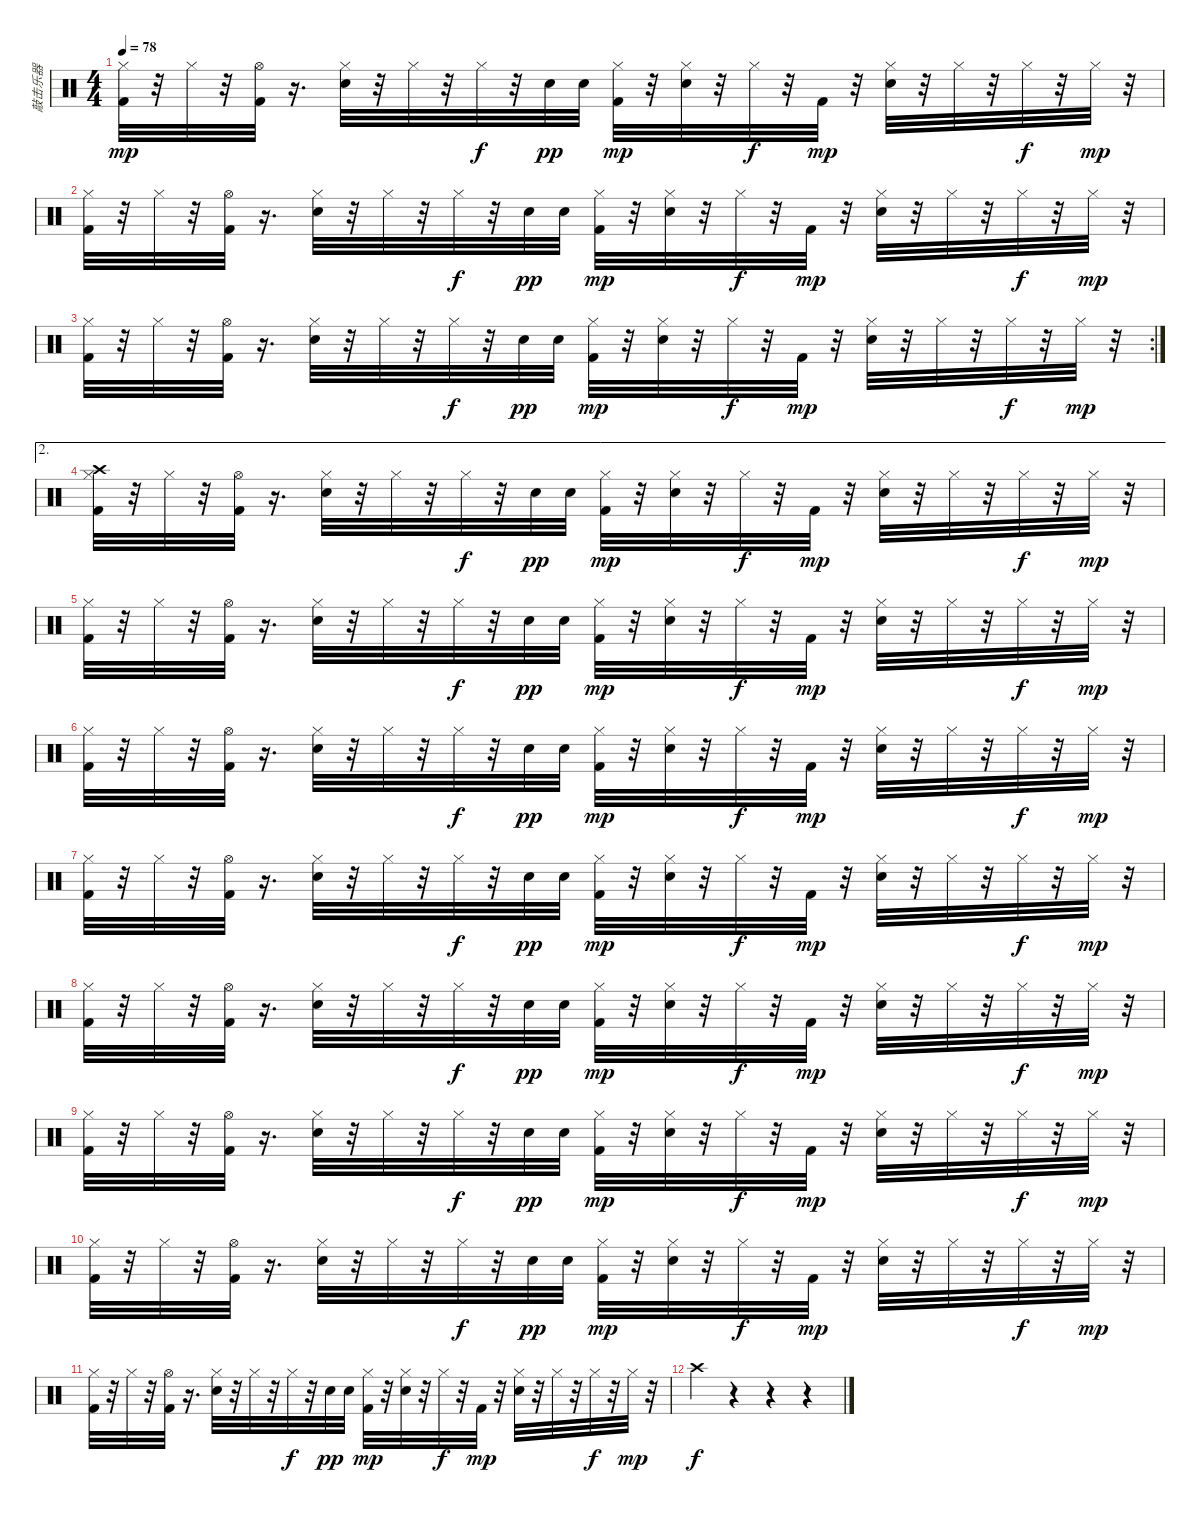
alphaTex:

\track ("敲击乐器" "敲击乐器") {instrument percussion}
\staff {score}
\articulation defaults
\ts (4 4)
\tempo 78
\clef neutral
\ks c
("Hi-Hat (closed)" "Kick (hit) 2").32{dy mp} r.32 "Hi-Hat (closed)".32 r.32 ("Kick (hit) 2" "Hi-Hat (open)").32 r.16{d} ("Hi-Hat (closed)" "Electric Snare (hit)").32 r.32 "Hi-Hat (closed)".32 r.32 "Hi-Hat (closed)".32{dy f} r.32 "Electric Snare (hit)".32{dy pp} "Electric Snare (hit)".32 ("Hi-Hat (closed)" "Kick (hit) 2").32{dy mp} r.32 ("Hi-Hat (closed)" "Electric Snare (hit)").32 r.32 "Hi-Hat (closed)".32{dy f} r.32 "Kick (hit) 2".32{dy mp} r.32 ("Electric Snare (hit)" "Hi-Hat (closed)").32 r.32 "Hi-Hat (closed)".32 r.32 "Hi-Hat (closed)".32{dy f} r.32 "Hi-Hat (closed)".32{dy mp} r.32 |
("Hi-Hat (closed)" "Kick (hit) 2").32 r.32 "Hi-Hat (closed)".32 r.32 ("Hi-Hat (open)" "Kick (hit) 2").32 r.16{d} ("Hi-Hat (closed)" "Electric Snare (hit)").32 r.32 "Hi-Hat (closed)".32 r.32 "Hi-Hat (closed)".32{dy f} r.32 "Electric Snare (hit)".32{dy pp} "Electric Snare (hit)".32 ("Kick (hit) 2" "Hi-Hat (closed)").32{dy mp} r.32 ("Hi-Hat (closed)" "Electric Snare (hit)").32 r.32 "Hi-Hat (closed)".32{dy f} r.32 "Kick (hit) 2".32{dy mp} r.32 ("Hi-Hat (closed)" "Electric Snare (hit)").32 r.32 "Hi-Hat (closed)".32 r.32 "Hi-Hat (closed)".32{dy f} r.32 "Hi-Hat (closed)".32{dy mp} r.32 |
\rc 2
("Hi-Hat (closed)" "Kick (hit) 2").32 r.32 "Hi-Hat (closed)".32 r.32 ("Hi-Hat (open)" "Kick (hit) 2").32 r.16{d} ("Hi-Hat (closed)" "Electric Snare (hit)").32 r.32 "Hi-Hat (closed)".32 r.32 "Hi-Hat (closed)".32{dy f} r.32 "Electric Snare (hit)".32{dy pp} "Electric Snare (hit)".32 ("Kick (hit) 2" "Hi-Hat (closed)").32{dy mp} r.32 ("Hi-Hat (closed)" "Electric Snare (hit)").32 r.32 "Hi-Hat (closed)".32{dy f} r.32 "Kick (hit) 2".32{dy mp} r.32 ("Hi-Hat (closed)" "Electric Snare (hit)").32 r.32 "Hi-Hat (closed)".32 r.32 "Hi-Hat (closed)".32{dy f} r.32 "Hi-Hat (closed)".32{dy mp} r.32 |
\ae 2
("Hi-Hat (closed)" "Kick (hit) 2" "Crash high (hit)").32 r.32 "Hi-Hat (closed)".32 r.32 ("Kick (hit) 2" "Hi-Hat (open)").32 r.16{d} ("Hi-Hat (closed)" "Electric Snare (hit)").32 r.32 "Hi-Hat (closed)".32 r.32 "Hi-Hat (closed)".32{dy f} r.32 "Electric Snare (hit)".32{dy pp} "Electric Snare (hit)".32 ("Hi-Hat (closed)" "Kick (hit) 2").32{dy mp} r.32 ("Hi-Hat (closed)" "Electric Snare (hit)").32 r.32 "Hi-Hat (closed)".32{dy f} r.32 "Kick (hit) 2".32{dy mp} r.32 ("Electric Snare (hit)" "Hi-Hat (closed)").32 r.32 "Hi-Hat (closed)".32 r.32 "Hi-Hat (closed)".32{dy f} r.32 "Hi-Hat (closed)".32{dy mp} r.32 |
("Hi-Hat (closed)" "Kick (hit) 2").32 r.32 "Hi-Hat (closed)".32 r.32 ("Kick (hit) 2" "Hi-Hat (open)").32 r.16{d} ("Hi-Hat (closed)" "Electric Snare (hit)").32 r.32 "Hi-Hat (closed)".32 r.32 "Hi-Hat (closed)".32{dy f} r.32 "Electric Snare (hit)".32{dy pp} "Electric Snare (hit)".32 ("Hi-Hat (closed)" "Kick (hit) 2").32{dy mp} r.32 ("Hi-Hat (closed)" "Electric Snare (hit)").32 r.32 "Hi-Hat (closed)".32{dy f} r.32 "Kick (hit) 2".32{dy mp} r.32 ("Electric Snare (hit)" "Hi-Hat (closed)").32 r.32 "Hi-Hat (closed)".32 r.32 "Hi-Hat (closed)".32{dy f} r.32 "Hi-Hat (closed)".32{dy mp} r.32 |
("Hi-Hat (closed)" "Kick (hit) 2").32 r.32 "Hi-Hat (closed)".32 r.32 ("Hi-Hat (open)" "Kick (hit) 2").32 r.16{d} ("Hi-Hat (closed)" "Electric Snare (hit)").32 r.32 "Hi-Hat (closed)".32 r.32 "Hi-Hat (closed)".32{dy f} r.32 "Electric Snare (hit)".32{dy pp} "Electric Snare (hit)".32 ("Kick (hit) 2" "Hi-Hat (closed)").32{dy mp} r.32 ("Hi-Hat (closed)" "Electric Snare (hit)").32 r.32 "Hi-Hat (closed)".32{dy f} r.32 "Kick (hit) 2".32{dy mp} r.32 ("Hi-Hat (closed)" "Electric Snare (hit)").32 r.32 "Hi-Hat (closed)".32 r.32 "Hi-Hat (closed)".32{dy f} r.32 "Hi-Hat (closed)".32{dy mp} r.32 |
("Hi-Hat (closed)" "Kick (hit) 2").32 r.32 "Hi-Hat (closed)".32 r.32 ("Hi-Hat (open)" "Kick (hit) 2").32 r.16{d} ("Hi-Hat (closed)" "Electric Snare (hit)").32 r.32 "Hi-Hat (closed)".32 r.32 "Hi-Hat (closed)".32{dy f} r.32 "Electric Snare (hit)".32{dy pp} "Electric Snare (hit)".32 ("Kick (hit) 2" "Hi-Hat (closed)").32{dy mp} r.32 ("Hi-Hat (closed)" "Electric Snare (hit)").32 r.32 "Hi-Hat (closed)".32{dy f} r.32 "Kick (hit) 2".32{dy mp} r.32 ("Hi-Hat (closed)" "Electric Snare (hit)").32 r.32 "Hi-Hat (closed)".32 r.32 "Hi-Hat (closed)".32{dy f} r.32 "Hi-Hat (closed)".32{dy mp} r.32 |
("Hi-Hat (closed)" "Kick (hit) 2").32 r.32 "Hi-Hat (closed)".32 r.32 ("Kick (hit) 2" "Hi-Hat (open)").32 r.16{d} ("Hi-Hat (closed)" "Electric Snare (hit)").32 r.32 "Hi-Hat (closed)".32 r.32 "Hi-Hat (closed)".32{dy f} r.32 "Electric Snare (hit)".32{dy pp} "Electric Snare (hit)".32 ("Hi-Hat (closed)" "Kick (hit) 2").32{dy mp} r.32 ("Hi-Hat (closed)" "Electric Snare (hit)").32 r.32 "Hi-Hat (closed)".32{dy f} r.32 "Kick (hit) 2".32{dy mp} r.32 ("Electric Snare (hit)" "Hi-Hat (closed)").32 r.32 "Hi-Hat (closed)".32 r.32 "Hi-Hat (closed)".32{dy f} r.32 "Hi-Hat (closed)".32{dy mp} r.32 |
("Hi-Hat (closed)" "Kick (hit) 2").32 r.32 "Hi-Hat (closed)".32 r.32 ("Kick (hit) 2" "Hi-Hat (open)").32 r.16{d} ("Hi-Hat (closed)" "Electric Snare (hit)").32 r.32 "Hi-Hat (closed)".32 r.32 "Hi-Hat (closed)".32{dy f} r.32 "Electric Snare (hit)".32{dy pp} "Electric Snare (hit)".32 ("Hi-Hat (closed)" "Kick (hit) 2").32{dy mp} r.32 ("Hi-Hat (closed)" "Electric Snare (hit)").32 r.32 "Hi-Hat (closed)".32{dy f} r.32 "Kick (hit) 2".32{dy mp} r.32 ("Electric Snare (hit)" "Hi-Hat (closed)").32 r.32 "Hi-Hat (closed)".32 r.32 "Hi-Hat (closed)".32{dy f} r.32 "Hi-Hat (closed)".32{dy mp} r.32 |
("Hi-Hat (closed)" "Kick (hit) 2").32 r.32 "Hi-Hat (closed)".32 r.32 ("Hi-Hat (open)" "Kick (hit) 2").32 r.16{d} ("Hi-Hat (closed)" "Electric Snare (hit)").32 r.32 "Hi-Hat (closed)".32 r.32 "Hi-Hat (closed)".32{dy f} r.32 "Electric Snare (hit)".32{dy pp} "Electric Snare (hit)".32 ("Kick (hit) 2" "Hi-Hat (closed)").32{dy mp} r.32 ("Hi-Hat (closed)" "Electric Snare (hit)").32 r.32 "Hi-Hat (closed)".32{dy f} r.32 "Kick (hit) 2".32{dy mp} r.32 ("Hi-Hat (closed)" "Electric Snare (hit)").32 r.32 "Hi-Hat (closed)".32 r.32 "Hi-Hat (closed)".32{dy f} r.32 "Hi-Hat (closed)".32{dy mp} r.32 |
("Hi-Hat (closed)" "Kick (hit) 2").32 r.32 "Hi-Hat (closed)".32 r.32 ("Hi-Hat (open)" "Kick (hit) 2").32 r.16{d} ("Hi-Hat (closed)" "Electric Snare (hit)").32 r.32 "Hi-Hat (closed)".32 r.32 "Hi-Hat (closed)".32{dy f} r.32 "Electric Snare (hit)".32{dy pp} "Electric Snare (hit)".32 ("Kick (hit) 2" "Hi-Hat (closed)").32{dy mp} r.32 ("Hi-Hat (closed)" "Electric Snare (hit)").32 r.32 "Hi-Hat (closed)".32{dy f} r.32 "Kick (hit) 2".32{dy mp} r.32 ("Hi-Hat (closed)" "Electric Snare (hit)").32 r.32 "Hi-Hat (closed)".32 r.32 "Hi-Hat (closed)".32{dy f} r.32 "Hi-Hat (closed)".32{dy mp} r.32 |
"Crash high (hit)".4{dy f} r.4 r.4 r.4
